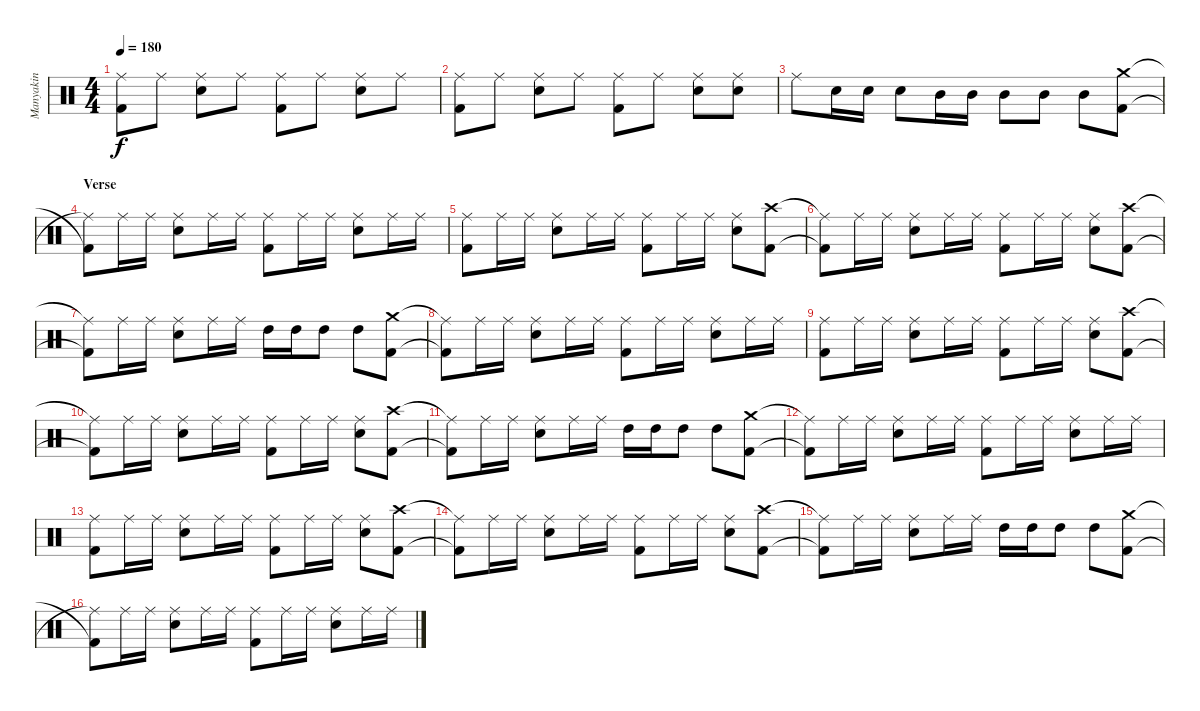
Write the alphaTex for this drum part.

\track ("Manyakin" "Manyakin") {instrument percussion}
\staff {score}
\articulation defaults
\ts (4 4)
\tempo 180
\clef neutral
\ks c
("Kick (hit) 2" "Ride (middle)").8{dy f} "Ride (middle)".8 ("Snare (hit) 2" "Ride (middle)").8 "Ride (middle)".8 ("Kick (hit) 2" "Ride (middle)").8 "Ride (middle)".8 ("Snare (hit) 2" "Ride (middle)").8 "Ride (middle)".8 |
("Kick (hit) 2" "Ride (middle)").8 "Ride (middle)".8 ("Snare (hit) 2" "Ride (middle)").8 "Ride (middle)".8 ("Kick (hit) 2" "Ride (middle)").8 "Ride (middle)".8 ("Snare (hit) 2" "Ride (middle)").8 ("Snare (hit) 2" "Ride (middle)").8 |
"Ride (middle)".8 "Snare (hit) 2".16 "Snare (hit) 2".16 "Snare (hit) 2".8 "Mid Tom (hit)".16 "Mid Tom (hit)".16 "Mid Tom (hit)".8 "Mid Tom (hit)".8 "Mid Tom (hit)".8 ("Kick (hit) 2" "Crash medium (hit)").8 |
\section ("" "Verse")
("Ride (middle)"{t} "Kick (hit) 2"{t}).8 "Ride (middle)".16 "Ride (middle)".16 ("Ride (middle)" "Snare (hit) 2").8 "Ride (middle)".16 "Ride (middle)".16 ("Ride (middle)" "Kick (hit) 2").8 "Ride (middle)".16 "Ride (middle)".16 ("Ride (middle)" "Snare (hit) 2").8 "Ride (middle)".16 "Ride (middle)".16 |
("Kick (hit) 2" "Ride (middle)").8 "Ride (middle)".16 "Ride (middle)".16 ("Snare (hit) 2" "Ride (middle)").8 "Ride (middle)".16 "Ride (middle)".16 ("Kick (hit) 2" "Ride (middle)").8 "Ride (middle)".16 "Ride (middle)".16 ("Snare (hit) 2" "Ride (middle)").8 ("Kick (hit) 2" "Crash high (hit)").8 |
("Kick (hit) 2"{t} "Ride (middle)"{t}).8 "Ride (middle)".16 "Ride (middle)".16 ("Snare (hit) 2" "Ride (middle)").8 "Ride (middle)".16 "Ride (middle)".16 ("Kick (hit) 2" "Ride (middle)").8 "Ride (middle)".16 "Ride (middle)".16 ("Snare (hit) 2" "Ride (middle)").8 ("Kick (hit) 2" "Crash high (hit)").8 |
("Kick (hit) 2"{t} "Ride (middle)"{t}).8 "Ride (middle)".16 "Ride (middle)".16 ("Snare (hit) 2" "Ride (middle)").8 "Ride (middle)".16 "Ride (middle)".16 "High Tom (hit)".16 "High Tom (hit)".16 "High Tom (hit)".8 "High Tom (hit)".8 ("Crash medium (hit)" "Kick (hit) 2").8 |
("Ride (middle)"{t} "Kick (hit) 2"{t}).8 "Ride (middle)".16 "Ride (middle)".16 ("Ride (middle)" "Snare (hit) 2").8 "Ride (middle)".16 "Ride (middle)".16 ("Ride (middle)" "Kick (hit) 2").8 "Ride (middle)".16 "Ride (middle)".16 ("Ride (middle)" "Snare (hit) 2").8 "Ride (middle)".16 "Ride (middle)".16 |
("Kick (hit) 2" "Ride (middle)").8 "Ride (middle)".16 "Ride (middle)".16 ("Snare (hit) 2" "Ride (middle)").8 "Ride (middle)".16 "Ride (middle)".16 ("Kick (hit) 2" "Ride (middle)").8 "Ride (middle)".16 "Ride (middle)".16 ("Snare (hit) 2" "Ride (middle)").8 ("Kick (hit) 2" "Crash high (hit)").8 |
("Kick (hit) 2"{t} "Ride (middle)"{t}).8 "Ride (middle)".16 "Ride (middle)".16 ("Snare (hit) 2" "Ride (middle)").8 "Ride (middle)".16 "Ride (middle)".16 ("Kick (hit) 2" "Ride (middle)").8 "Ride (middle)".16 "Ride (middle)".16 ("Snare (hit) 2" "Ride (middle)").8 ("Kick (hit) 2" "Crash high (hit)").8 |
("Kick (hit) 2"{t} "Ride (middle)"{t}).8 "Ride (middle)".16 "Ride (middle)".16 ("Snare (hit) 2" "Ride (middle)").8 "Ride (middle)".16 "Ride (middle)".16 "High Tom (hit)".16 "High Tom (hit)".16 "High Tom (hit)".8 "High Tom (hit)".8 ("Crash medium (hit)" "Kick (hit) 2").8 |
("Ride (middle)"{t} "Kick (hit) 2"{t}).8 "Ride (middle)".16 "Ride (middle)".16 ("Ride (middle)" "Snare (hit) 2").8 "Ride (middle)".16 "Ride (middle)".16 ("Ride (middle)" "Kick (hit) 2").8 "Ride (middle)".16 "Ride (middle)".16 ("Ride (middle)" "Snare (hit) 2").8 "Ride (middle)".16 "Ride (middle)".16 |
("Kick (hit) 2" "Ride (middle)").8 "Ride (middle)".16 "Ride (middle)".16 ("Snare (hit) 2" "Ride (middle)").8 "Ride (middle)".16 "Ride (middle)".16 ("Kick (hit) 2" "Ride (middle)").8 "Ride (middle)".16 "Ride (middle)".16 ("Snare (hit) 2" "Ride (middle)").8 ("Kick (hit) 2" "Crash high (hit)").8 |
("Kick (hit) 2"{t} "Ride (middle)"{t}).8 "Ride (middle)".16 "Ride (middle)".16 ("Snare (hit) 2" "Ride (middle)").8 "Ride (middle)".16 "Ride (middle)".16 ("Kick (hit) 2" "Ride (middle)").8 "Ride (middle)".16 "Ride (middle)".16 ("Snare (hit) 2" "Ride (middle)").8 ("Kick (hit) 2" "Crash high (hit)").8 |
("Kick (hit) 2"{t} "Ride (middle)"{t}).8 "Ride (middle)".16 "Ride (middle)".16 ("Snare (hit) 2" "Ride (middle)").8 "Ride (middle)".16 "Ride (middle)".16 "High Tom (hit)".16 "High Tom (hit)".16 "High Tom (hit)".8 "High Tom (hit)".8 ("Crash medium (hit)" "Kick (hit) 2").8 |
("Kick (hit) 2"{t} "Ride (middle)"{t}).8 "Ride (middle)".16 "Ride (middle)".16 ("Snare (hit) 2" "Ride (middle)").8 "Ride (middle)".16 "Ride (middle)".16 ("Kick (hit) 2" "Ride (middle)").8 "Ride (middle)".16 "Ride (middle)".16 ("Snare (hit) 2" "Ride (middle)").8 "Ride (middle)".16 "Ride (middle)".16
